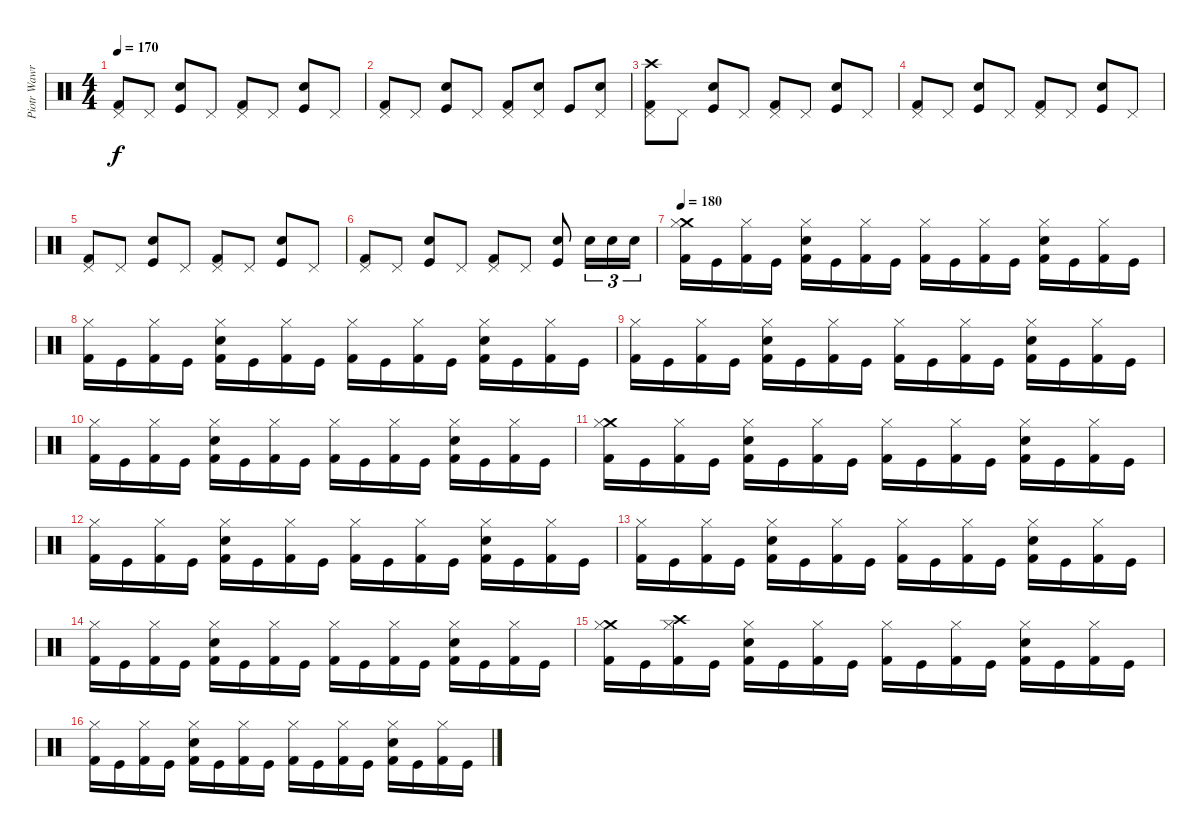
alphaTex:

\track ("Piotr Wawrzeniuk" "Piotr Wawr") {instrument percussion}
\staff {score}
\articulation defaults
\ts (4 4)
\tempo 170
\clef neutral
\ks c
("Pedal Hi-Hat (hit)" "Kick (hit) 2").8{dy f} "Pedal Hi-Hat (hit)".8 ("Snare (hit) 2" "Kick (hit)").8 "Pedal Hi-Hat (hit)".8 ("Pedal Hi-Hat (hit)" "Kick (hit) 2").8 "Pedal Hi-Hat (hit)".8 ("Snare (hit) 2" "Kick (hit)").8 "Pedal Hi-Hat (hit)".8 |
("Pedal Hi-Hat (hit)" "Kick (hit) 2").8 "Pedal Hi-Hat (hit)".8 ("Snare (hit) 2" "Kick (hit)").8 "Pedal Hi-Hat (hit)".8 ("Pedal Hi-Hat (hit)" "Kick (hit) 2").8 ("Snare (hit) 2" "Pedal Hi-Hat (hit)").8 "Kick (hit)".8 ("Snare (hit) 2" "Pedal Hi-Hat (hit)").8 |
("Crash high (hit)" "Pedal Hi-Hat (hit)" "Kick (hit) 2").8 "Pedal Hi-Hat (hit)".8 ("Snare (hit) 2" "Kick (hit)").8 "Pedal Hi-Hat (hit)".8 ("Pedal Hi-Hat (hit)" "Kick (hit) 2").8 "Pedal Hi-Hat (hit)".8 ("Snare (hit) 2" "Kick (hit)").8 "Pedal Hi-Hat (hit)".8 |
("Pedal Hi-Hat (hit)" "Kick (hit) 2").8 "Pedal Hi-Hat (hit)".8 ("Snare (hit) 2" "Kick (hit)").8 "Pedal Hi-Hat (hit)".8 ("Pedal Hi-Hat (hit)" "Kick (hit) 2").8 "Pedal Hi-Hat (hit)".8 ("Snare (hit) 2" "Kick (hit)").8 "Pedal Hi-Hat (hit)".8 |
("Pedal Hi-Hat (hit)" "Kick (hit) 2").8 "Pedal Hi-Hat (hit)".8 ("Snare (hit) 2" "Kick (hit)").8 "Pedal Hi-Hat (hit)".8 ("Pedal Hi-Hat (hit)" "Kick (hit) 2").8 "Pedal Hi-Hat (hit)".8 ("Snare (hit) 2" "Kick (hit)").8 "Pedal Hi-Hat (hit)".8 |
("Pedal Hi-Hat (hit)" "Kick (hit) 2").8 "Pedal Hi-Hat (hit)".8 ("Snare (hit) 2" "Kick (hit)").8 "Pedal Hi-Hat (hit)".8 ("Pedal Hi-Hat (hit)" "Kick (hit) 2").8 "Pedal Hi-Hat (hit)".8 ("Snare (hit) 2" "Kick (hit)").8 "Snare (hit) 2".16{tu (3 2)} "Snare (hit) 2".16{tu (3 2)} "Snare (hit) 2".16{tu (3 2)} |
\tempo 180
("Crash medium (hit)" "Hi-Hat (closed)" "Kick (hit) 2").16 "Kick (hit)".16 ("Hi-Hat (closed)" "Kick (hit) 2").16 "Kick (hit)".16 ("Snare (hit) 2" "Hi-Hat (closed)" "Kick (hit) 2").16 "Kick (hit)".16 ("Hi-Hat (closed)" "Kick (hit) 2").16 "Kick (hit)".16 ("Hi-Hat (closed)" "Kick (hit) 2").16 "Kick (hit)".16 ("Hi-Hat (closed)" "Kick (hit) 2").16 "Kick (hit)".16 ("Snare (hit) 2" "Hi-Hat (closed)" "Kick (hit) 2").16 "Kick (hit)".16 ("Hi-Hat (closed)" "Kick (hit) 2").16 "Kick (hit)".16 |
("Hi-Hat (closed)" "Kick (hit) 2").16 "Kick (hit)".16 ("Hi-Hat (closed)" "Kick (hit) 2").16 "Kick (hit)".16 ("Snare (hit) 2" "Hi-Hat (closed)" "Kick (hit) 2").16 "Kick (hit)".16 ("Hi-Hat (closed)" "Kick (hit) 2").16 "Kick (hit)".16 ("Hi-Hat (closed)" "Kick (hit) 2").16 "Kick (hit)".16 ("Hi-Hat (closed)" "Kick (hit) 2").16 "Kick (hit)".16 ("Snare (hit) 2" "Hi-Hat (closed)" "Kick (hit) 2").16 "Kick (hit)".16 ("Hi-Hat (closed)" "Kick (hit) 2").16 "Kick (hit)".16 |
("Hi-Hat (closed)" "Kick (hit) 2").16 "Kick (hit)".16 ("Hi-Hat (closed)" "Kick (hit) 2").16 "Kick (hit)".16 ("Snare (hit) 2" "Hi-Hat (closed)" "Kick (hit) 2").16 "Kick (hit)".16 ("Hi-Hat (closed)" "Kick (hit) 2").16 "Kick (hit)".16 ("Hi-Hat (closed)" "Kick (hit) 2").16 "Kick (hit)".16 ("Hi-Hat (closed)" "Kick (hit) 2").16 "Kick (hit)".16 ("Snare (hit) 2" "Hi-Hat (closed)" "Kick (hit) 2").16 "Kick (hit)".16 ("Hi-Hat (closed)" "Kick (hit) 2").16 "Kick (hit)".16 |
("Hi-Hat (closed)" "Kick (hit) 2").16 "Kick (hit)".16 ("Hi-Hat (closed)" "Kick (hit) 2").16 "Kick (hit)".16 ("Snare (hit) 2" "Hi-Hat (closed)" "Kick (hit) 2").16 "Kick (hit)".16 ("Hi-Hat (closed)" "Kick (hit) 2").16 "Kick (hit)".16 ("Hi-Hat (closed)" "Kick (hit) 2").16 "Kick (hit)".16 ("Hi-Hat (closed)" "Kick (hit) 2").16 "Kick (hit)".16 ("Snare (hit) 2" "Hi-Hat (closed)" "Kick (hit) 2").16 "Kick (hit)".16 ("Hi-Hat (closed)" "Kick (hit) 2").16 "Kick (hit)".16 |
("Crash medium (hit)" "Hi-Hat (closed)" "Kick (hit) 2").16 "Kick (hit)".16 ("Hi-Hat (closed)" "Kick (hit) 2").16 "Kick (hit)".16 ("Snare (hit) 2" "Hi-Hat (closed)" "Kick (hit) 2").16 "Kick (hit)".16 ("Hi-Hat (closed)" "Kick (hit) 2").16 "Kick (hit)".16 ("Hi-Hat (closed)" "Kick (hit) 2").16 "Kick (hit)".16 ("Hi-Hat (closed)" "Kick (hit) 2").16 "Kick (hit)".16 ("Snare (hit) 2" "Hi-Hat (closed)" "Kick (hit) 2").16 "Kick (hit)".16 ("Hi-Hat (closed)" "Kick (hit) 2").16 "Kick (hit)".16 |
("Hi-Hat (closed)" "Kick (hit) 2").16 "Kick (hit)".16 ("Hi-Hat (closed)" "Kick (hit) 2").16 "Kick (hit)".16 ("Snare (hit) 2" "Hi-Hat (closed)" "Kick (hit) 2").16 "Kick (hit)".16 ("Hi-Hat (closed)" "Kick (hit) 2").16 "Kick (hit)".16 ("Hi-Hat (closed)" "Kick (hit) 2").16 "Kick (hit)".16 ("Hi-Hat (closed)" "Kick (hit) 2").16 "Kick (hit)".16 ("Snare (hit) 2" "Hi-Hat (closed)" "Kick (hit) 2").16 "Kick (hit)".16 ("Hi-Hat (closed)" "Kick (hit) 2").16 "Kick (hit)".16 |
("Hi-Hat (closed)" "Kick (hit) 2").16 "Kick (hit)".16 ("Hi-Hat (closed)" "Kick (hit) 2").16 "Kick (hit)".16 ("Snare (hit) 2" "Hi-Hat (closed)" "Kick (hit) 2").16 "Kick (hit)".16 ("Hi-Hat (closed)" "Kick (hit) 2").16 "Kick (hit)".16 ("Hi-Hat (closed)" "Kick (hit) 2").16 "Kick (hit)".16 ("Hi-Hat (closed)" "Kick (hit) 2").16 "Kick (hit)".16 ("Snare (hit) 2" "Hi-Hat (closed)" "Kick (hit) 2").16 "Kick (hit)".16 ("Hi-Hat (closed)" "Kick (hit) 2").16 "Kick (hit)".16 |
("Hi-Hat (closed)" "Kick (hit) 2").16 "Kick (hit)".16 ("Hi-Hat (closed)" "Kick (hit) 2").16 "Kick (hit)".16 ("Snare (hit) 2" "Hi-Hat (closed)" "Kick (hit) 2").16 "Kick (hit)".16 ("Hi-Hat (closed)" "Kick (hit) 2").16 "Kick (hit)".16 ("Hi-Hat (closed)" "Kick (hit) 2").16 "Kick (hit)".16 ("Hi-Hat (closed)" "Kick (hit) 2").16 "Kick (hit)".16 ("Snare (hit) 2" "Hi-Hat (closed)" "Kick (hit) 2").16 "Kick (hit)".16 ("Hi-Hat (closed)" "Kick (hit) 2").16 "Kick (hit)".16 |
("Crash medium (hit)" "Hi-Hat (closed)" "Kick (hit) 2").16 "Kick (hit)".16 ("Crash high (hit)" "Hi-Hat (closed)" "Kick (hit) 2").16 "Kick (hit)".16 ("Snare (hit) 2" "Hi-Hat (closed)" "Kick (hit) 2").16 "Kick (hit)".16 ("Hi-Hat (closed)" "Kick (hit) 2").16 "Kick (hit)".16 ("Hi-Hat (closed)" "Kick (hit) 2").16 "Kick (hit)".16 ("Hi-Hat (closed)" "Kick (hit) 2").16 "Kick (hit)".16 ("Snare (hit) 2" "Hi-Hat (closed)" "Kick (hit) 2").16 "Kick (hit)".16 ("Hi-Hat (closed)" "Kick (hit) 2").16 "Kick (hit)".16 |
("Hi-Hat (closed)" "Kick (hit) 2").16 "Kick (hit)".16 ("Hi-Hat (closed)" "Kick (hit) 2").16 "Kick (hit)".16 ("Snare (hit) 2" "Hi-Hat (closed)" "Kick (hit) 2").16 "Kick (hit)".16 ("Hi-Hat (closed)" "Kick (hit) 2").16 "Kick (hit)".16 ("Hi-Hat (closed)" "Kick (hit) 2").16 "Kick (hit)".16 ("Hi-Hat (closed)" "Kick (hit) 2").16 "Kick (hit)".16 ("Snare (hit) 2" "Hi-Hat (closed)" "Kick (hit) 2").16 "Kick (hit)".16 ("Hi-Hat (closed)" "Kick (hit) 2").16 "Kick (hit)".16
